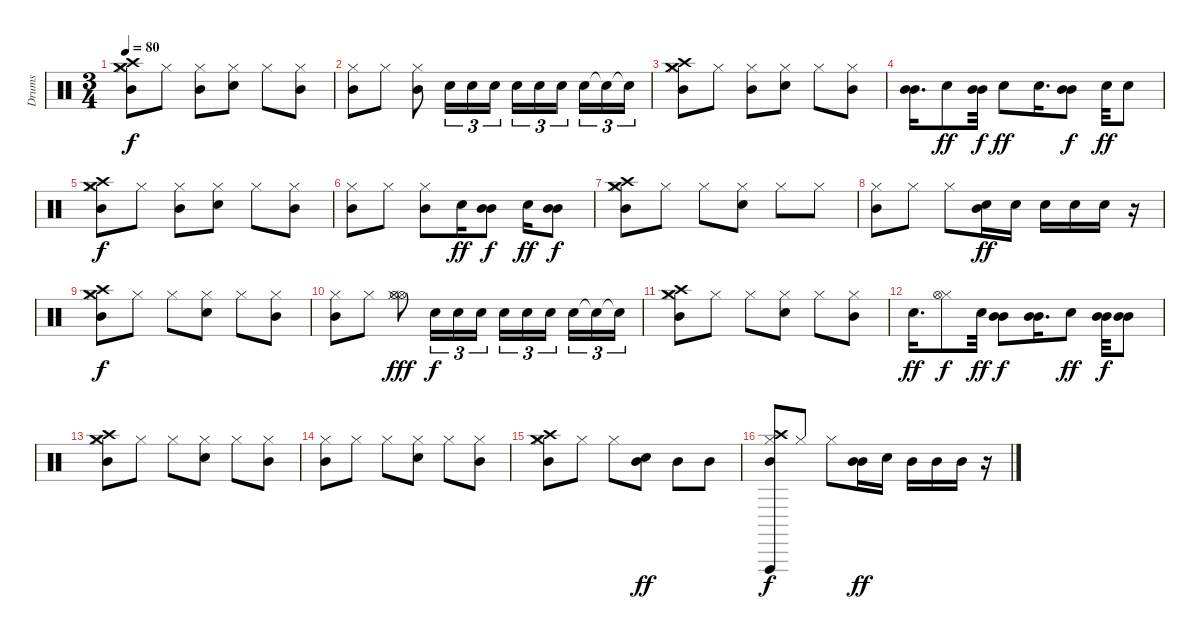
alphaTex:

\track ("Drums" "Drums") {instrument percussion}
\staff {score}
\articulation defaults
\ts (3 4)
\tempo 80
\clef neutral
\ks c
("Crash high (hit)" "Crash medium (hit)" "Hi-Hat (closed)" "Mid Tom (hit)").8{dy f} "Hi-Hat (closed)".8 ("Hi-Hat (closed)" "Mid Tom (hit)").8 ("Hi-Hat (closed)" "Snare (hit) 2").8 "Hi-Hat (closed)".8 ("Hi-Hat (closed)" "Mid Tom (hit)").8 |
("Hi-Hat (closed)" "Mid Tom (hit)").8 "Hi-Hat (closed)".8 ("Hi-Hat (closed)" "Mid Tom (hit)").8 "Snare (hit) 2".16{tu (3 2)} "Snare (hit) 2".16{tu (3 2)} "Snare (hit) 2".16{tu (3 2)} "Snare (hit) 2".16{tu (3 2)} "Snare (hit) 2".16{tu (3 2)} "Snare (hit) 2".16{tu (3 2)} "Snare (hit) 2".16{tu (3 2)} "Snare (hit)"{t}.16{tu (3 2)} "Snare (hit)"{t}.16{tu (3 2)} |
("Crash high (hit)" "Crash medium (hit)" "Hi-Hat (closed)" "Mid Tom (hit)").8 "Hi-Hat (closed)".8 ("Hi-Hat (closed)" "Mid Tom (hit)").8 ("Hi-Hat (closed)" "Snare (hit) 2").8 "Hi-Hat (closed)".8 ("Hi-Hat (closed)" "Mid Tom (hit)").8 |
("Mid Tom (hit)" "Mid Tom (hit)").16{d} "Snare (hit) 2".8{dy ff} ("Mid Tom (hit)" "Mid Tom (hit)").32{dy f} "Snare (hit) 2".8{dy ff} "Snare (hit) 2".16{d} ("Mid Tom (hit)" "Mid Tom (hit)").8{dy f} "Snare (hit) 2".32{dy ff} "Snare (hit) 2".8 |
("Crash high (hit)" "Crash medium (hit)" "Hi-Hat (closed)" "Mid Tom (hit)").8{dy f} "Hi-Hat (closed)".8 ("Hi-Hat (closed)" "Mid Tom (hit)").8 ("Hi-Hat (closed)" "Snare (hit) 2").8 "Hi-Hat (closed)".8 ("Hi-Hat (closed)" "Mid Tom (hit)").8 |
("Hi-Hat (closed)" "Mid Tom (hit)").8 "Hi-Hat (closed)".8 ("Hi-Hat (closed)" "Mid Tom (hit)").8 "Snare (hit) 2".16{dy ff} ("Mid Tom (hit)" "Mid Tom (hit)").8{dy f} "Snare (hit) 2".16{dy ff} ("Mid Tom (hit)" "Mid Tom (hit)").8{dy f} |
("Crash high (hit)" "Crash medium (hit)" "Hi-Hat (closed)" "Mid Tom (hit)").8 "Hi-Hat (closed)".8 "Hi-Hat (closed)".8 ("Hi-Hat (closed)" "Snare (hit) 2").8 "Hi-Hat (closed)".8 "Hi-Hat (closed)".8 |
("Hi-Hat (closed)" "Mid Tom (hit)").8 "Hi-Hat (closed)".8 "Hi-Hat (closed)".8 ("Snare (hit) 2" "Mid Tom (hit)").16{bd 120 dy ff} "Snare (hit) 2".16 "Snare (hit) 2".16 "Snare (hit) 2".16 "Snare (hit) 2".16 r.16 |
("Crash high (hit)" "Crash medium (hit)" "Hi-Hat (closed)" "Mid Tom (hit)").8{dy f} "Hi-Hat (closed)".8 "Hi-Hat (closed)".8 ("Hi-Hat (closed)" "Snare (hit) 2").8 "Hi-Hat (closed)".8 ("Hi-Hat (closed)" "Mid Tom (hit)").8 |
("Hi-Hat (closed)" "Mid Tom (hit)").8 "Hi-Hat (closed)".8 ("Hi-Hat (open)" "Hi-Hat (open)" "Hi-Hat (closed)").8{dy fff} "Snare (hit) 2".16{tu (3 2) dy f} "Snare (hit) 2".16{tu (3 2)} "Snare (hit) 2".16{tu (3 2)} "Snare (hit) 2".16{tu (3 2)} "Snare (hit) 2".16{tu (3 2)} "Snare (hit) 2".16{tu (3 2)} "Snare (hit) 2".16{tu (3 2)} "Snare (hit)"{t}.16{tu (3 2)} "Snare (hit)"{t}.16{tu (3 2)} |
("Crash high (hit)" "Crash medium (hit)" "Hi-Hat (closed)" "Mid Tom (hit)").8 "Hi-Hat (closed)".8 "Hi-Hat (closed)".8 ("Hi-Hat (closed)" "Snare (hit) 2").8 "Hi-Hat (closed)".8 ("Hi-Hat (closed)" "Mid Tom (hit)").8 |
"Snare (hit) 2".16{d dy ff} ("Hi-Hat (closed)" "Hi-Hat (open)").8{dy f} "Snare (hit) 2".32{dy ff} ("Mid Tom (hit)" "Mid Tom (hit)").8{dy f} ("Mid Tom (hit)" "Mid Tom (hit)").16{d} "Snare (hit) 2".8{dy ff} ("Mid Tom (hit)" "Mid Tom (hit)").32{dy f} ("Mid Tom (hit)" "Mid Tom (hit)").8 |
("Crash high (hit)" "Crash medium (hit)" "Hi-Hat (closed)" "Mid Tom (hit)").8 "Hi-Hat (closed)".8 "Hi-Hat (closed)".8 ("Hi-Hat (closed)" "Snare (hit) 2").8 "Hi-Hat (closed)".8 ("Hi-Hat (closed)" "Mid Tom (hit)").8 |
("Hi-Hat (closed)" "Mid Tom (hit)").8 "Hi-Hat (closed)".8 "Hi-Hat (closed)".8 ("Hi-Hat (closed)" "Snare (hit) 2").8 "Hi-Hat (closed)".8 ("Hi-Hat (closed)" "Mid Tom (hit)").8 |
("Crash high (hit)" "Crash medium (hit)" "Hi-Hat (closed)" "Mid Tom (hit)").8 "Hi-Hat (closed)".8 "Hi-Hat (closed)".8 ("Snare (hit) 2" "Mid Tom (hit)").8{bd 120 dy ff} "Mid Tom (hit)".8 "Mid Tom (hit)".8 |
("Crash high (hit)" "Vibraslap (hit)" "Hi-Hat (closed)" "Mid Tom (hit)").8{dy f} "Hi-Hat (closed)".8 "Hi-Hat (closed)".8 ("Mid Tom (hit)" "Mid Tom (hit)").16{bd 120 dy ff} "Snare (hit) 2".16 "Mid Tom (hit)".16 "Mid Tom (hit)".16 "Mid Tom (hit)".16 r.16
